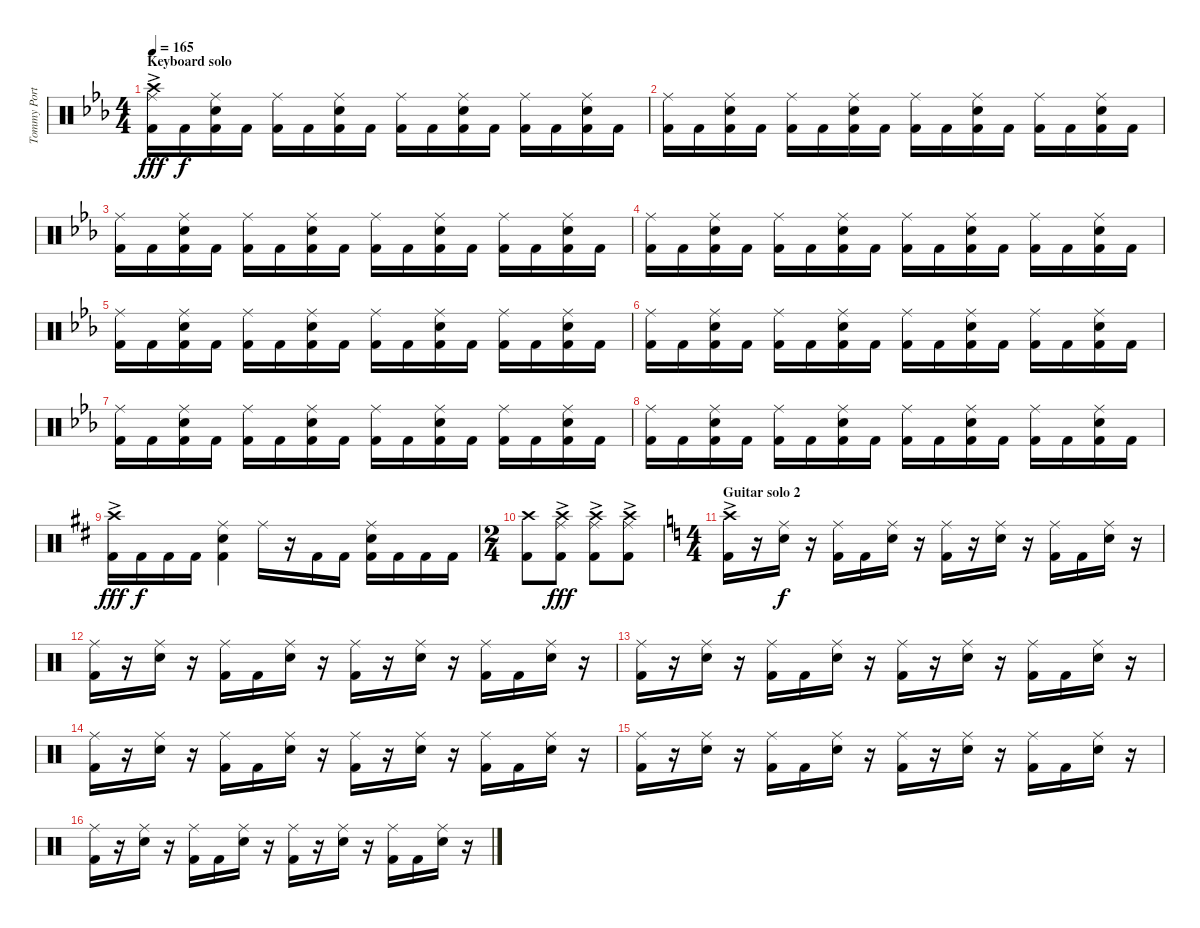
\track ("Tommy Portimo" "Tommy Port") {instrument percussion}
\staff {score}
\articulation defaults
\ts (4 4)
\section ("" "Keyboard solo")
\tempo 165
\clef neutral
\ks cminor
("Crash high (hit)"{ac} "Ride (middle)" "Kick (hit) 2").16{dy fff} "Kick (hit) 2".16{dy f} ("Ride (middle)" "Electric Snare (hit)" "Kick (hit) 2").16 "Kick (hit) 2".16 ("Ride (middle)" "Kick (hit) 2").16 "Kick (hit) 2".16 ("Ride (middle)" "Electric Snare (hit)" "Kick (hit) 2").16 "Kick (hit) 2".16 ("Ride (middle)" "Kick (hit) 2").16 "Kick (hit) 2".16 ("Ride (middle)" "Electric Snare (hit)" "Kick (hit) 2").16 "Kick (hit) 2".16 ("Ride (middle)" "Kick (hit) 2").16 "Kick (hit) 2".16 ("Ride (middle)" "Electric Snare (hit)" "Kick (hit) 2").16 "Kick (hit) 2".16 |
("Ride (middle)" "Kick (hit) 2").16 "Kick (hit) 2".16 ("Ride (middle)" "Electric Snare (hit)" "Kick (hit) 2").16 "Kick (hit) 2".16 ("Ride (middle)" "Kick (hit) 2").16 "Kick (hit) 2".16 ("Ride (middle)" "Electric Snare (hit)" "Kick (hit) 2").16 "Kick (hit) 2".16 ("Ride (middle)" "Kick (hit) 2").16 "Kick (hit) 2".16 ("Ride (middle)" "Electric Snare (hit)" "Kick (hit) 2").16 "Kick (hit) 2".16 ("Ride (middle)" "Kick (hit) 2").16 "Kick (hit) 2".16 ("Ride (middle)" "Electric Snare (hit)" "Kick (hit) 2").16 "Kick (hit) 2".16 |
("Ride (middle)" "Kick (hit) 2").16 "Kick (hit) 2".16 ("Ride (middle)" "Electric Snare (hit)" "Kick (hit) 2").16 "Kick (hit) 2".16 ("Ride (middle)" "Kick (hit) 2").16 "Kick (hit) 2".16 ("Ride (middle)" "Electric Snare (hit)" "Kick (hit) 2").16 "Kick (hit) 2".16 ("Ride (middle)" "Kick (hit) 2").16 "Kick (hit) 2".16 ("Ride (middle)" "Electric Snare (hit)" "Kick (hit) 2").16 "Kick (hit) 2".16 ("Ride (middle)" "Kick (hit) 2").16 "Kick (hit) 2".16 ("Ride (middle)" "Electric Snare (hit)" "Kick (hit) 2").16 "Kick (hit) 2".16 |
("Ride (middle)" "Kick (hit) 2").16 "Kick (hit) 2".16 ("Ride (middle)" "Electric Snare (hit)" "Kick (hit) 2").16 "Kick (hit) 2".16 ("Ride (middle)" "Kick (hit) 2").16 "Kick (hit) 2".16 ("Ride (middle)" "Electric Snare (hit)" "Kick (hit) 2").16 "Kick (hit) 2".16 ("Ride (middle)" "Kick (hit) 2").16 "Kick (hit) 2".16 ("Ride (middle)" "Electric Snare (hit)" "Kick (hit) 2").16 "Kick (hit) 2".16 ("Ride (middle)" "Kick (hit) 2").16 "Kick (hit) 2".16 ("Ride (middle)" "Electric Snare (hit)" "Kick (hit) 2").16 "Kick (hit) 2".16 |
("Ride (middle)" "Kick (hit) 2").16 "Kick (hit) 2".16 ("Ride (middle)" "Electric Snare (hit)" "Kick (hit) 2").16 "Kick (hit) 2".16 ("Ride (middle)" "Kick (hit) 2").16 "Kick (hit) 2".16 ("Ride (middle)" "Electric Snare (hit)" "Kick (hit) 2").16 "Kick (hit) 2".16 ("Ride (middle)" "Kick (hit) 2").16 "Kick (hit) 2".16 ("Ride (middle)" "Electric Snare (hit)" "Kick (hit) 2").16 "Kick (hit) 2".16 ("Ride (middle)" "Kick (hit) 2").16 "Kick (hit) 2".16 ("Ride (middle)" "Electric Snare (hit)" "Kick (hit) 2").16 "Kick (hit) 2".16 |
("Ride (middle)" "Kick (hit) 2").16 "Kick (hit) 2".16 ("Ride (middle)" "Electric Snare (hit)" "Kick (hit) 2").16 "Kick (hit) 2".16 ("Ride (middle)" "Kick (hit) 2").16 "Kick (hit) 2".16 ("Ride (middle)" "Electric Snare (hit)" "Kick (hit) 2").16 "Kick (hit) 2".16 ("Ride (middle)" "Kick (hit) 2").16 "Kick (hit) 2".16 ("Ride (middle)" "Electric Snare (hit)" "Kick (hit) 2").16 "Kick (hit) 2".16 ("Ride (middle)" "Kick (hit) 2").16 "Kick (hit) 2".16 ("Ride (middle)" "Electric Snare (hit)" "Kick (hit) 2").16 "Kick (hit) 2".16 |
("Ride (middle)" "Kick (hit) 2").16 "Kick (hit) 2".16 ("Ride (middle)" "Electric Snare (hit)" "Kick (hit) 2").16 "Kick (hit) 2".16 ("Ride (middle)" "Kick (hit) 2").16 "Kick (hit) 2".16 ("Ride (middle)" "Electric Snare (hit)" "Kick (hit) 2").16 "Kick (hit) 2".16 ("Ride (middle)" "Kick (hit) 2").16 "Kick (hit) 2".16 ("Ride (middle)" "Electric Snare (hit)" "Kick (hit) 2").16 "Kick (hit) 2".16 ("Ride (middle)" "Kick (hit) 2").16 "Kick (hit) 2".16 ("Ride (middle)" "Electric Snare (hit)" "Kick (hit) 2").16 "Kick (hit) 2".16 |
("Ride (middle)" "Kick (hit) 2").16 "Kick (hit) 2".16 ("Ride (middle)" "Electric Snare (hit)" "Kick (hit) 2").16 "Kick (hit) 2".16 ("Ride (middle)" "Kick (hit) 2").16 "Kick (hit) 2".16 ("Ride (middle)" "Electric Snare (hit)" "Kick (hit) 2").16 "Kick (hit) 2".16 ("Ride (middle)" "Kick (hit) 2").16 "Kick (hit) 2".16 ("Ride (middle)" "Electric Snare (hit)" "Kick (hit) 2").16 "Kick (hit) 2".16 ("Ride (middle)" "Kick (hit) 2").16 "Kick (hit) 2".16 ("Ride (middle)" "Electric Snare (hit)" "Kick (hit) 2").16 "Kick (hit) 2".16 |
\ks bminor
("Crash high (hit)"{ac} "Kick (hit) 2").16{dy fff} "Kick (hit) 2".16{dy f} "Kick (hit) 2".16 "Kick (hit) 2".16 ("Ride (middle)" "Electric Snare (hit)" "Kick (hit) 2").4 "Ride (middle)".16 r.16 "Kick (hit) 2".16 "Kick (hit) 2".16 ("Ride (middle)" "Electric Snare (hit)" "Kick (hit) 2").16 "Kick (hit) 2".16 "Kick (hit) 2".16 "Kick (hit) 2".16 |
\ts (2 4)
("Crash high (hit)" "Kick (hit) 2").8 ("Crash high (hit)"{ac} "Ride (middle)"{ac} "Kick (hit) 2"{ac}).8{dy fff} ("Crash high (hit)"{ac} "Ride (middle)"{ac} "Kick (hit) 2"{ac}).8 ("Crash high (hit)"{ac} "Ride (middle)"{ac} "Kick (hit) 2"{ac}).8 |
\ts (4 4)
\section ("" "Guitar solo 2")
\ks aminor
("Crash high (hit)"{ac} "Kick (hit) 2").16 r.16 ("Ride (middle)" "Electric Snare (hit)").16{dy f} r.16 ("Ride (middle)" "Kick (hit) 2").16 "Kick (hit) 2".16 ("Ride (middle)" "Electric Snare (hit)").16 r.16 ("Ride (middle)" "Kick (hit) 2").16 r.16 ("Ride (middle)" "Electric Snare (hit)").16 r.16 ("Ride (middle)" "Kick (hit) 2").16 "Kick (hit) 2".16 ("Ride (middle)" "Electric Snare (hit)").16 r.16 |
("Ride (middle)" "Kick (hit) 2").16 r.16 ("Ride (middle)" "Electric Snare (hit)").16 r.16 ("Ride (middle)" "Kick (hit) 2").16 "Kick (hit) 2".16 ("Ride (middle)" "Electric Snare (hit)").16 r.16 ("Ride (middle)" "Kick (hit) 2").16 r.16 ("Ride (middle)" "Electric Snare (hit)").16 r.16 ("Ride (middle)" "Kick (hit) 2").16 "Kick (hit) 2".16 ("Ride (middle)" "Electric Snare (hit)").16 r.16 |
("Ride (middle)" "Kick (hit) 2").16 r.16 ("Ride (middle)" "Electric Snare (hit)").16 r.16 ("Ride (middle)" "Kick (hit) 2").16 "Kick (hit) 2".16 ("Ride (middle)" "Electric Snare (hit)").16 r.16 ("Ride (middle)" "Kick (hit) 2").16 r.16 ("Ride (middle)" "Electric Snare (hit)").16 r.16 ("Ride (middle)" "Kick (hit) 2").16 "Kick (hit) 2".16 ("Ride (middle)" "Electric Snare (hit)").16 r.16 |
("Ride (middle)" "Kick (hit) 2").16 r.16 ("Ride (middle)" "Electric Snare (hit)").16 r.16 ("Ride (middle)" "Kick (hit) 2").16 "Kick (hit) 2".16 ("Ride (middle)" "Electric Snare (hit)").16 r.16 ("Ride (middle)" "Kick (hit) 2").16 r.16 ("Ride (middle)" "Electric Snare (hit)").16 r.16 ("Ride (middle)" "Kick (hit) 2").16 "Kick (hit) 2".16 ("Ride (middle)" "Electric Snare (hit)").16 r.16 |
("Ride (middle)" "Kick (hit) 2").16 r.16 ("Ride (middle)" "Electric Snare (hit)").16 r.16 ("Ride (middle)" "Kick (hit) 2").16 "Kick (hit) 2".16 ("Ride (middle)" "Electric Snare (hit)").16 r.16 ("Ride (middle)" "Kick (hit) 2").16 r.16 ("Ride (middle)" "Electric Snare (hit)").16 r.16 ("Ride (middle)" "Kick (hit) 2").16 "Kick (hit) 2".16 ("Ride (middle)" "Electric Snare (hit)").16 r.16 |
("Ride (middle)" "Kick (hit) 2").16 r.16 ("Ride (middle)" "Electric Snare (hit)").16 r.16 ("Ride (middle)" "Kick (hit) 2").16 "Kick (hit) 2".16 ("Ride (middle)" "Electric Snare (hit)").16 r.16 ("Ride (middle)" "Kick (hit) 2").16 r.16 ("Ride (middle)" "Electric Snare (hit)").16 r.16 ("Ride (middle)" "Kick (hit) 2").16 "Kick (hit) 2".16 ("Ride (middle)" "Electric Snare (hit)").16 r.16
